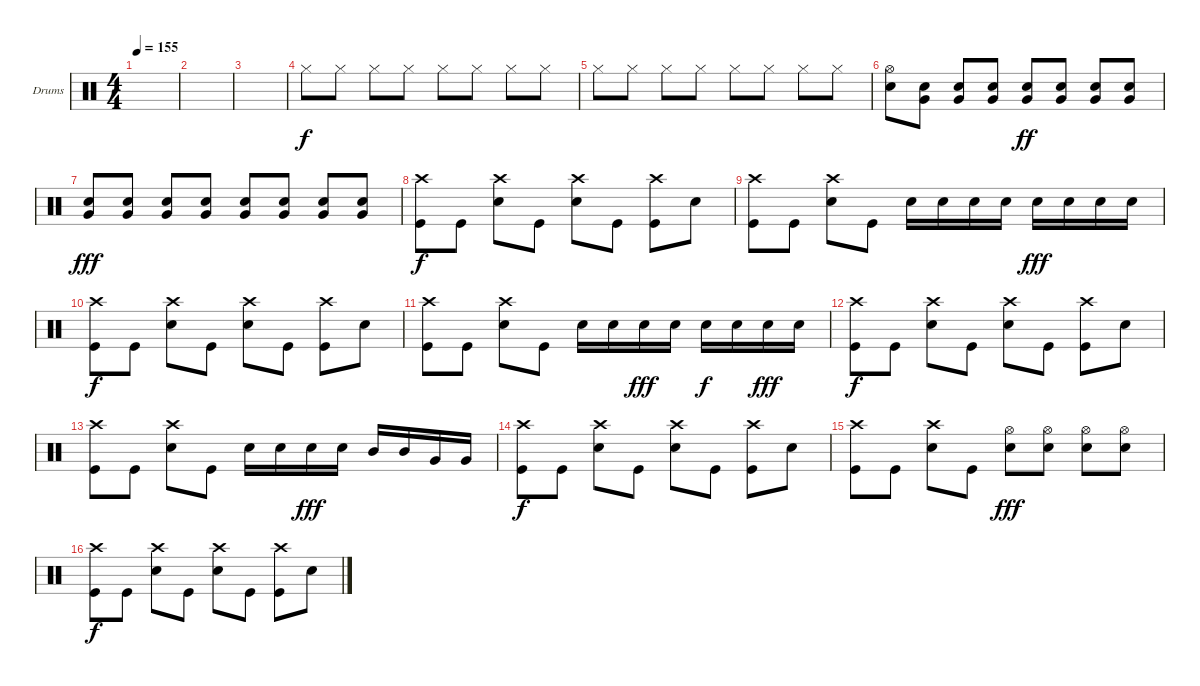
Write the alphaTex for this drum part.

\defaultSystemsLayout 4
\bracketExtendMode groupsimilarinstruments
\firstSystemTrackNameOrientation horizontal
\otherSystemsTrackNameOrientation horizontal
\track ("Ben Tatcher" "Drums") {instrument percussion}
\staff {score}
\articulation defaults
\ts (4 4)
\tempo 155
\clef neutral
\ks c
|
|
|
"Hi-Hat (closed)".8{dy f} "Hi-Hat (closed)".8 "Hi-Hat (closed)".8 "Hi-Hat (closed)".8 "Hi-Hat (closed)".8 "Hi-Hat (closed)".8 "Hi-Hat (closed)".8 "Hi-Hat (closed)".8 |
"Hi-Hat (closed)".8 "Hi-Hat (closed)".8 "Hi-Hat (closed)".8 "Hi-Hat (closed)".8 "Hi-Hat (closed)".8 "Hi-Hat (closed)".8 "Hi-Hat (closed)".8 "Hi-Hat (closed)".8 |
("Hi-Hat (open)" "Snare (hit) 2").8 ("Snare (hit) 2" "Very Low Tom (hit)").8 ("Snare (hit) 2" "Very Low Tom (hit)").8 ("Snare (hit) 2" "Very Low Tom (hit)").8 ("Snare (hit) 2" "Very Low Tom (hit)").8{dy ff} ("Snare (hit) 2" "Very Low Tom (hit)").8 ("Snare (hit) 2" "Very Low Tom (hit)").8 ("Snare (hit) 2" "Very Low Tom (hit)").8 |
("Snare (hit) 2" "Very Low Tom (hit)").8{dy fff} ("Snare (hit) 2" "Very Low Tom (hit)").8 ("Snare (hit) 2" "Very Low Tom (hit)").8 ("Snare (hit) 2" "Very Low Tom (hit)").8 ("Snare (hit) 2" "Very Low Tom (hit)").8 ("Snare (hit) 2" "Very Low Tom (hit)").8 ("Snare (hit) 2" "Very Low Tom (hit)").8 ("Snare (hit) 2" "Very Low Tom (hit)").8 |
("Kick (hit)" "Crash high (hit)").8{dy f} "Kick (hit)".8 ("Snare (hit) 2" "Crash high (hit)").8 "Kick (hit)".8 ("Snare (hit) 2" "Crash high (hit)").8 "Kick (hit)".8 ("Kick (hit)" "Crash high (hit)").8 "Snare (hit) 2".8 |
("Kick (hit)" "Crash high (hit)").8 "Kick (hit)".8 ("Snare (hit) 2" "Crash high (hit)").8 "Kick (hit)".8 "Snare (hit) 2".16 "Snare (hit) 2".16 "Snare (hit) 2".16 "Snare (hit) 2".16 "Snare (hit) 2".16{dy fff} "Snare (hit) 2".16 "Snare (hit) 2".16 "Snare (hit) 2".16 |
("Kick (hit)" "Crash high (hit)").8{dy f} "Kick (hit)".8 ("Snare (hit) 2" "Crash high (hit)").8 "Kick (hit)".8 ("Snare (hit) 2" "Crash high (hit)").8 "Kick (hit)".8 ("Kick (hit)" "Crash high (hit)").8 "Snare (hit) 2".8 |
("Kick (hit)" "Crash high (hit)").8 "Kick (hit)".8 ("Snare (hit) 2" "Crash high (hit)").8 "Kick (hit)".8 "Snare (hit) 2".16 "Snare (hit) 2".16 "Snare (hit) 2".16{dy fff} "Snare (hit) 2".16 "Snare (hit) 2".16{dy f} "Snare (hit) 2".16 "Snare (hit) 2".16{dy fff} "Snare (hit) 2".16 |
("Kick (hit)" "Crash high (hit)").8{dy f} "Kick (hit)".8 ("Snare (hit) 2" "Crash high (hit)").8 "Kick (hit)".8 ("Snare (hit) 2" "Crash high (hit)").8 "Kick (hit)".8 ("Kick (hit)" "Crash high (hit)").8 "Snare (hit) 2".8 |
("Kick (hit)" "Crash high (hit)").8 "Kick (hit)".8 ("Snare (hit) 2" "Crash high (hit)").8 "Kick (hit)".8 "Snare (hit) 2".16 "Snare (hit) 2".16 "Snare (hit) 2".16{dy fff} "Snare (hit) 2".16 "Mid Tom (hit)".16 "Mid Tom (hit)".16 "Very Low Tom (hit)".16 "Very Low Tom (hit)".16 |
("Kick (hit)" "Crash high (hit)").8{dy f} "Kick (hit)".8 ("Snare (hit) 2" "Crash high (hit)").8 "Kick (hit)".8 ("Snare (hit) 2" "Crash high (hit)").8 "Kick (hit)".8 ("Kick (hit)" "Crash high (hit)").8 "Snare (hit) 2".8 |
("Kick (hit)" "Crash high (hit)").8 "Kick (hit)".8 ("Snare (hit) 2" "Crash high (hit)").8 "Kick (hit)".8 ("Snare (hit) 2" "Hi-Hat (open)").8{dy fff} ("Snare (hit) 2" "Hi-Hat (open)").8 ("Snare (hit) 2" "Hi-Hat (open)").8 ("Snare (hit) 2" "Hi-Hat (open)").8 |
("Kick (hit)" "Crash high (hit)").8{dy f} "Kick (hit)".8 ("Snare (hit) 2" "Crash high (hit)").8 "Kick (hit)".8 ("Snare (hit) 2" "Crash high (hit)").8 "Kick (hit)".8 ("Kick (hit)" "Crash high (hit)").8 "Snare (hit) 2".8
